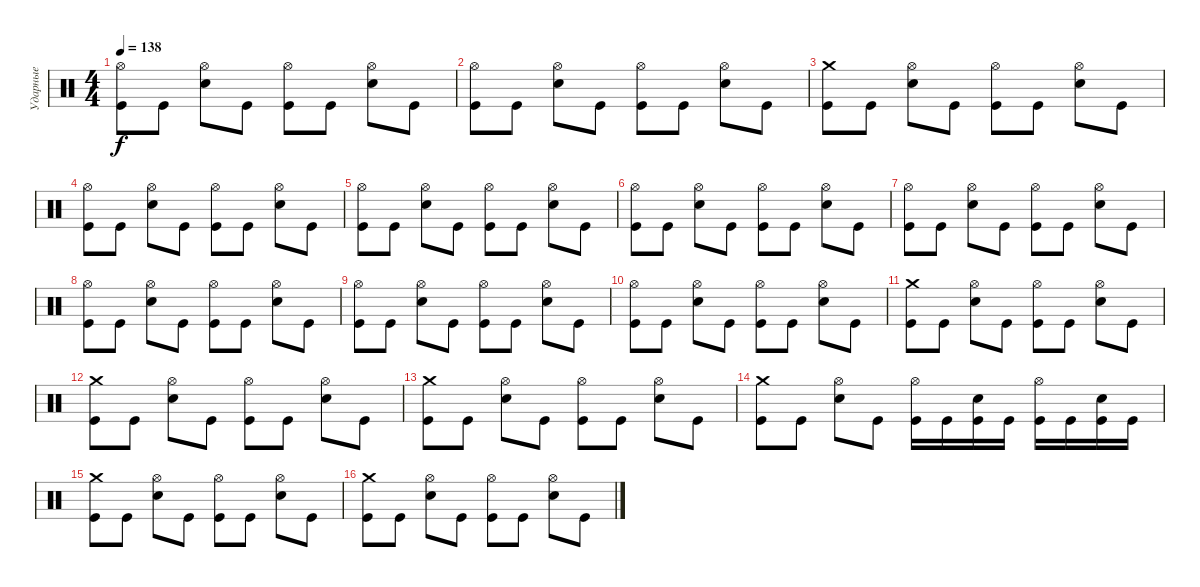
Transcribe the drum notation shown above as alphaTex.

\track ("Ударные" "Ударные") {instrument percussion}
\staff {score}
\articulation defaults
\ts (4 4)
\tempo 138
\clef neutral
\ks c
("Hi-Hat (open)" "Kick (hit)").8{dy f} "Kick (hit)".8 ("Hi-Hat (open)" "Snare (hit) 2").8 "Kick (hit)".8 ("Hi-Hat (open)" "Kick (hit)").8 "Kick (hit)".8 ("Hi-Hat (open)" "Snare (hit) 2").8 "Kick (hit)".8 |
("Hi-Hat (open)" "Kick (hit)").8 "Kick (hit)".8 ("Hi-Hat (open)" "Snare (hit) 2").8 "Kick (hit)".8 ("Hi-Hat (open)" "Kick (hit)").8 "Kick (hit)".8 ("Hi-Hat (open)" "Snare (hit) 2").8 "Kick (hit)".8 |
("Crash medium (hit)" "Kick (hit)").8 "Kick (hit)".8 ("Hi-Hat (open)" "Snare (hit) 2").8 "Kick (hit)".8 ("Hi-Hat (open)" "Kick (hit)").8 "Kick (hit)".8 ("Hi-Hat (open)" "Snare (hit) 2").8 "Kick (hit)".8 |
("Hi-Hat (open)" "Kick (hit)").8 "Kick (hit)".8 ("Hi-Hat (open)" "Snare (hit) 2").8 "Kick (hit)".8 ("Hi-Hat (open)" "Kick (hit)").8 "Kick (hit)".8 ("Hi-Hat (open)" "Snare (hit) 2").8 "Kick (hit)".8 |
("Hi-Hat (open)" "Kick (hit)").8 "Kick (hit)".8 ("Hi-Hat (open)" "Snare (hit) 2").8 "Kick (hit)".8 ("Hi-Hat (open)" "Kick (hit)").8 "Kick (hit)".8 ("Hi-Hat (open)" "Snare (hit) 2").8 "Kick (hit)".8 |
("Hi-Hat (open)" "Kick (hit)").8 "Kick (hit)".8 ("Hi-Hat (open)" "Snare (hit) 2").8 "Kick (hit)".8 ("Hi-Hat (open)" "Kick (hit)").8 "Kick (hit)".8 ("Hi-Hat (open)" "Snare (hit) 2").8 "Kick (hit)".8 |
("Hi-Hat (open)" "Kick (hit)").8 "Kick (hit)".8 ("Hi-Hat (open)" "Snare (hit) 2").8 "Kick (hit)".8 ("Hi-Hat (open)" "Kick (hit)").8 "Kick (hit)".8 ("Hi-Hat (open)" "Snare (hit) 2").8 "Kick (hit)".8 |
("Hi-Hat (open)" "Kick (hit)").8 "Kick (hit)".8 ("Hi-Hat (open)" "Snare (hit) 2").8 "Kick (hit)".8 ("Hi-Hat (open)" "Kick (hit)").8 "Kick (hit)".8 ("Hi-Hat (open)" "Snare (hit) 2").8 "Kick (hit)".8 |
("Hi-Hat (open)" "Kick (hit)").8 "Kick (hit)".8 ("Hi-Hat (open)" "Snare (hit) 2").8 "Kick (hit)".8 ("Hi-Hat (open)" "Kick (hit)").8 "Kick (hit)".8 ("Hi-Hat (open)" "Snare (hit) 2").8 "Kick (hit)".8 |
("Hi-Hat (open)" "Kick (hit)").8 "Kick (hit)".8 ("Hi-Hat (open)" "Snare (hit) 2").8 "Kick (hit)".8 ("Hi-Hat (open)" "Kick (hit)").8 "Kick (hit)".8 ("Hi-Hat (open)" "Snare (hit) 2").8 "Kick (hit)".8 |
("Crash medium (hit)" "Kick (hit)").8 "Kick (hit)".8 ("Hi-Hat (open)" "Snare (hit) 2").8 "Kick (hit)".8 ("Hi-Hat (open)" "Kick (hit)").8 "Kick (hit)".8 ("Hi-Hat (open)" "Snare (hit) 2").8 "Kick (hit)".8 |
("Crash medium (hit)" "Kick (hit)").8 "Kick (hit)".8 ("Hi-Hat (open)" "Snare (hit) 2").8 "Kick (hit)".8 ("Hi-Hat (open)" "Kick (hit)").8 "Kick (hit)".8 ("Hi-Hat (open)" "Snare (hit) 2").8 "Kick (hit)".8 |
("Crash medium (hit)" "Kick (hit)").8 "Kick (hit)".8 ("Hi-Hat (open)" "Snare (hit) 2").8 "Kick (hit)".8 ("Hi-Hat (open)" "Kick (hit)").8 "Kick (hit)".8 ("Hi-Hat (open)" "Snare (hit) 2").8 "Kick (hit)".8 |
("Crash medium (hit)" "Kick (hit)").8 "Kick (hit)".8 ("Hi-Hat (open)" "Snare (hit) 2").8 "Kick (hit)".8 ("Hi-Hat (open)" "Kick (hit)").16 "Kick (hit)".16 ("Snare (hit) 2" "Kick (hit)").16 "Kick (hit)".16 ("Hi-Hat (open)" "Kick (hit)").16 "Kick (hit)".16 ("Snare (hit) 2" "Kick (hit)").16 "Kick (hit)".16 |
("Crash medium (hit)" "Kick (hit)").8 "Kick (hit)".8 ("Hi-Hat (open)" "Snare (hit) 2").8 "Kick (hit)".8 ("Hi-Hat (open)" "Kick (hit)").8 "Kick (hit)".8 ("Hi-Hat (open)" "Snare (hit) 2").8 "Kick (hit)".8 |
("Crash medium (hit)" "Kick (hit)").8 "Kick (hit)".8 ("Hi-Hat (open)" "Snare (hit) 2").8 "Kick (hit)".8 ("Hi-Hat (open)" "Kick (hit)").8 "Kick (hit)".8 ("Hi-Hat (open)" "Snare (hit) 2").8 "Kick (hit)".8
